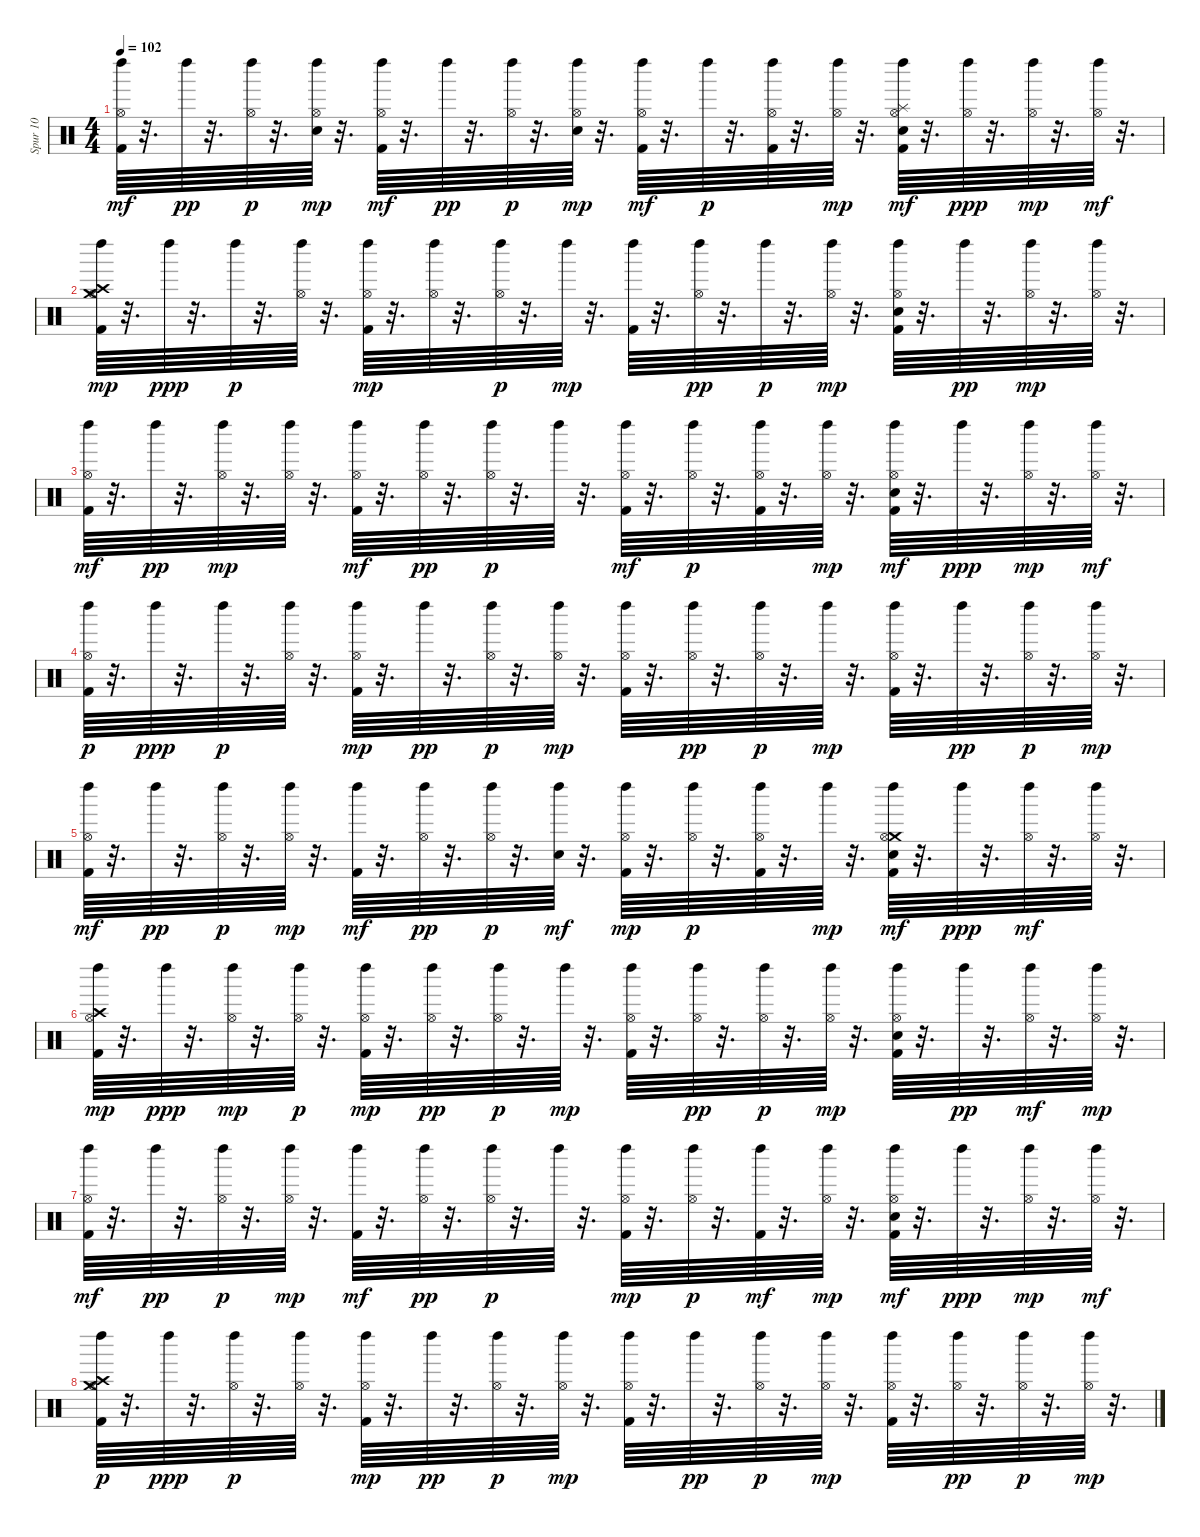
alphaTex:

\track ("Spur 10" "Spur 10") {instrument percussion}
\staff {score}
\articulation defaults
\ts (4 4)
\tempo 102
\clef neutral
\ks c
("Hi-Hat (open)" "Kick (hit) 2" "Left Maraca (hit)").64{dy mf} r.32{d} "Left Maraca (hit)".64{dy pp} r.32{d} ("Hi-Hat (open)" "Left Maraca (hit)").64{dy p} r.32{d} ("Hi-Hat (open)" "Left Maraca (hit)" "Snare (hit) 2").64{dy mp} r.32{d} ("Hi-Hat (open)" "Left Maraca (hit)" "Kick (hit) 2").64{dy mf} r.32{d} "Left Maraca (hit)".64{dy pp} r.32{d} ("Hi-Hat (open)" "Left Maraca (hit)").64{dy p} r.32{d} ("Hi-Hat (open)" "Left Maraca (hit)" "Snare (hit) 2").64{dy mp} r.32{d} ("Hi-Hat (open)" "Kick (hit) 2" "Left Maraca (hit)").64{dy mf} r.32{d} "Left Maraca (hit)".64{dy p} r.32{d} ("Hi-Hat (open)" "Left Maraca (hit)" "Kick (hit) 2").64 r.32{d} ("Hi-Hat (open)" "Left Maraca (hit)").64{dy mp} r.32{d} ("Hi-Hat (open)" "Splash (hit)" "Left Maraca (hit)" "Snare (hit) 2" "Kick (hit) 2").64{dy mf} r.32{d} ("Hi-Hat (open)" "Left Maraca (hit)").64{dy ppp} r.32{d} ("Hi-Hat (open)" "Left Maraca (hit)").64{dy mp} r.32{d} ("Hi-Hat (open)" "Left Maraca (hit)").64{dy mf} r.32{d} |
("Hi-Hat (open)" "Left Maraca (hit)" "Kick (hit) 2" "Crash medium (hit)" "Crash high (hit)").64{dy mp} r.32{d} "Left Maraca (hit)".64{dy ppp} r.32{d} "Left Maraca (hit)".64{dy p} r.32{d} ("Hi-Hat (open)" "Left Maraca (hit)").64 r.32{d} ("Hi-Hat (open)" "Left Maraca (hit)" "Kick (hit) 2").64{dy mp} r.32{d} ("Left Maraca (hit)" "Hi-Hat (open)").64 r.32{d} ("Hi-Hat (open)" "Left Maraca (hit)").64{dy p} r.32{d} "Left Maraca (hit)".64{dy mp} r.32{d} ("Left Maraca (hit)" "Kick (hit) 2").64 r.32{d} ("Hi-Hat (open)" "Left Maraca (hit)").64{dy pp} r.32{d} "Left Maraca (hit)".64{dy p} r.32{d} ("Hi-Hat (open)" "Left Maraca (hit)").64{dy mp} r.32{d} ("Left Maraca (hit)" "Kick (hit) 2" "Snare (hit) 2" "Hi-Hat (open)").64 r.32{d} "Left Maraca (hit)".64{dy pp} r.32{d} ("Left Maraca (hit)" "Hi-Hat (open)").64{dy mp} r.32{d} ("Hi-Hat (open)" "Left Maraca (hit)").64 r.32{d} |
("Hi-Hat (open)" "Left Maraca (hit)" "Kick (hit) 2").64{dy mf} r.32{d} "Left Maraca (hit)".64{dy pp} r.32{d} ("Left Maraca (hit)" "Hi-Hat (open)").64{dy mp} r.32{d} ("Hi-Hat (open)" "Left Maraca (hit)").64 r.32{d} ("Hi-Hat (open)" "Kick (hit) 2" "Left Maraca (hit)").64{dy mf} r.32{d} ("Hi-Hat (open)" "Left Maraca (hit)").64{dy pp} r.32{d} ("Hi-Hat (open)" "Left Maraca (hit)").64{dy p} r.32{d} "Left Maraca (hit)".64 r.32{d} ("Kick (hit) 2" "Hi-Hat (open)" "Left Maraca (hit)").64{dy mf} r.32{d} ("Hi-Hat (open)" "Left Maraca (hit)").64{dy p} r.32{d} ("Kick (hit) 2" "Hi-Hat (open)" "Left Maraca (hit)").64 r.32{d} ("Hi-Hat (open)" "Left Maraca (hit)").64{dy mp} r.32{d} ("Hi-Hat (open)" "Left Maraca (hit)" "Kick (hit) 2" "Snare (hit) 2").64{dy mf} r.32{d} "Left Maraca (hit)".64{dy ppp} r.32{d} ("Hi-Hat (open)" "Left Maraca (hit)").64{dy mp} r.32{d} ("Hi-Hat (open)" "Left Maraca (hit)").64{dy mf} r.32{d} |
("Kick (hit) 2" "Hi-Hat (open)" "Left Maraca (hit)").64{dy p} r.32{d} "Left Maraca (hit)".64{dy ppp} r.32{d} "Left Maraca (hit)".64{dy p} r.32{d} ("Hi-Hat (open)" "Left Maraca (hit)").64 r.32{d} ("Hi-Hat (open)" "Kick (hit) 2" "Left Maraca (hit)").64{dy mp} r.32{d} "Left Maraca (hit)".64{dy pp} r.32{d} ("Hi-Hat (open)" "Left Maraca (hit)").64{dy p} r.32{d} ("Hi-Hat (open)" "Left Maraca (hit)").64{dy mp} r.32{d} ("Hi-Hat (open)" "Left Maraca (hit)" "Kick (hit) 2").64 r.32{d} ("Hi-Hat (open)" "Left Maraca (hit)").64{dy pp} r.32{d} ("Hi-Hat (open)" "Left Maraca (hit)").64{dy p} r.32{d} "Left Maraca (hit)".64{dy mp} r.32{d} ("Hi-Hat (open)" "Kick (hit) 2" "Left Maraca (hit)").64 r.32{d} "Left Maraca (hit)".64{dy pp} r.32{d} ("Hi-Hat (open)" "Left Maraca (hit)").64{dy p} r.32{d} ("Hi-Hat (open)" "Left Maraca (hit)").64{dy mp} r.32{d} |
("Hi-Hat (open)" "Left Maraca (hit)" "Kick (hit) 2").64{dy mf} r.32{d} "Left Maraca (hit)".64{dy pp} r.32{d} ("Hi-Hat (open)" "Left Maraca (hit)").64{dy p} r.32{d} ("Left Maraca (hit)" "Hi-Hat (open)").64{dy mp} r.32{d} ("Left Maraca (hit)" "Kick (hit) 2").64{dy mf} r.32{d} ("Hi-Hat (open)" "Left Maraca (hit)").64{dy pp} r.32{d} ("Hi-Hat (open)" "Left Maraca (hit)").64{dy p} r.32{d} ("Left Maraca (hit)" "Snare (hit) 2").64{dy mf} r.32{d} ("Left Maraca (hit)" "Kick (hit) 2" "Hi-Hat (open)").64{dy mp} r.32{d} ("Hi-Hat (open)" "Left Maraca (hit)").64{dy p} r.32{d} ("Hi-Hat (open)" "Left Maraca (hit)" "Kick (hit) 2").64 r.32{d} "Left Maraca (hit)".64{dy mp} r.32{d} ("Crash medium (hit)" "Snare (hit) 2" "Left Maraca (hit)" "Kick (hit) 2" "Hi-Hat (open)").64{dy mf} r.32{d} "Left Maraca (hit)".64{dy ppp} r.32{d} ("Left Maraca (hit)" "Hi-Hat (open)").64{dy mf} r.32{d} ("Hi-Hat (open)" "Left Maraca (hit)").64 r.32{d} |
("Hi-Hat (open)" "Left Maraca (hit)" "Kick (hit) 2" "Crash high (hit)").64{dy mp} r.32{d} "Left Maraca (hit)".64{dy ppp} r.32{d} ("Left Maraca (hit)" "Hi-Hat (open)").64{dy mp} r.32{d} ("Hi-Hat (open)" "Left Maraca (hit)").64{dy p} r.32{d} ("Hi-Hat (open)" "Left Maraca (hit)" "Kick (hit) 2").64{dy mp} r.32{d} ("Hi-Hat (open)" "Left Maraca (hit)").64{dy pp} r.32{d} ("Hi-Hat (open)" "Left Maraca (hit)").64{dy p} r.32{d} "Left Maraca (hit)".64{dy mp} r.32{d} ("Hi-Hat (open)" "Left Maraca (hit)" "Kick (hit) 2").64 r.32{d} ("Hi-Hat (open)" "Left Maraca (hit)").64{dy pp} r.32{d} ("Hi-Hat (open)" "Left Maraca (hit)").64{dy p} r.32{d} ("Hi-Hat (open)" "Left Maraca (hit)").64{dy mp} r.32{d} ("Left Maraca (hit)" "Snare (hit) 2" "Kick (hit) 2" "Hi-Hat (open)").64 r.32{d} "Left Maraca (hit)".64{dy pp} r.32{d} ("Left Maraca (hit)" "Hi-Hat (open)").64{dy mf} r.32{d} ("Hi-Hat (open)" "Left Maraca (hit)").64{dy mp} r.32{d} |
("Hi-Hat (open)" "Left Maraca (hit)" "Kick (hit) 2").64{dy mf} r.32{d} "Left Maraca (hit)".64{dy pp} r.32{d} ("Hi-Hat (open)" "Left Maraca (hit)").64{dy p} r.32{d} ("Hi-Hat (open)" "Left Maraca (hit)").64{dy mp} r.32{d} ("Kick (hit) 2" "Left Maraca (hit)").64{dy mf} r.32{d} ("Hi-Hat (open)" "Left Maraca (hit)").64{dy pp} r.32{d} ("Hi-Hat (open)" "Left Maraca (hit)").64{dy p} r.32{d} "Left Maraca (hit)".64 r.32{d} ("Left Maraca (hit)" "Kick (hit) 2" "Hi-Hat (open)").64{dy mp} r.32{d} ("Hi-Hat (open)" "Left Maraca (hit)").64{dy p} r.32{d} ("Left Maraca (hit)" "Kick (hit) 2").64{dy mf} r.32{d} ("Hi-Hat (open)" "Left Maraca (hit)").64{dy mp} r.32{d} ("Hi-Hat (open)" "Left Maraca (hit)" "Snare (hit) 2" "Kick (hit) 2").64{dy mf} r.32{d} "Left Maraca (hit)".64{dy ppp} r.32{d} ("Hi-Hat (open)" "Left Maraca (hit)").64{dy mp} r.32{d} ("Hi-Hat (open)" "Left Maraca (hit)").64{dy mf} r.32{d} |
("Hi-Hat (open)" "Left Maraca (hit)" "Kick (hit) 2" "Crash medium (hit)" "Crash high (hit)").64{dy p} r.32{d} "Left Maraca (hit)".64{dy ppp} r.32{d} ("Hi-Hat (open)" "Left Maraca (hit)").64{dy p} r.32{d} ("Hi-Hat (open)" "Left Maraca (hit)").64 r.32{d} ("Hi-Hat (open)" "Left Maraca (hit)" "Kick (hit) 2").64{dy mp} r.32{d} "Left Maraca (hit)".64{dy pp} r.32{d} ("Hi-Hat (open)" "Left Maraca (hit)").64{dy p} r.32{d} ("Hi-Hat (open)" "Left Maraca (hit)").64{dy mp} r.32{d} ("Hi-Hat (open)" "Left Maraca (hit)" "Kick (hit) 2").64 r.32{d} "Left Maraca (hit)".64{dy pp} r.32{d} ("Hi-Hat (open)" "Left Maraca (hit)").64{dy p} r.32{d} ("Hi-Hat (open)" "Left Maraca (hit)").64{dy mp} r.32{d} ("Hi-Hat (open)" "Left Maraca (hit)" "Kick (hit) 2").64 r.32{d} ("Hi-Hat (open)" "Left Maraca (hit)").64{dy pp} r.32{d} ("Hi-Hat (open)" "Left Maraca (hit)").64{dy p} r.32{d} ("Hi-Hat (open)" "Left Maraca (hit)").64{dy mp} r.32{d}
